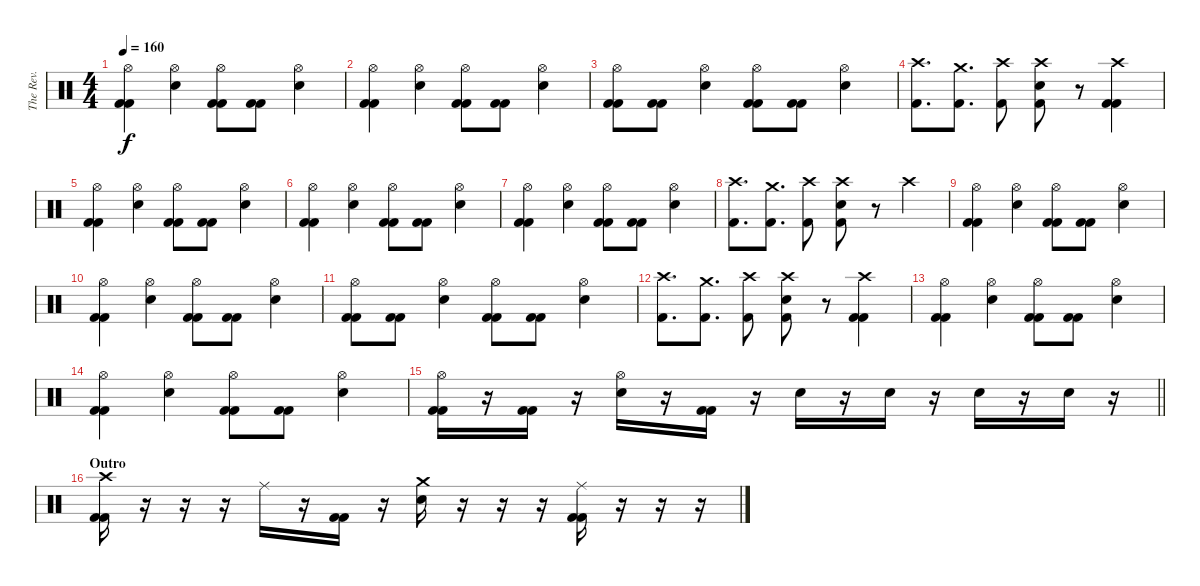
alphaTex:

\track ("The Rev." "The Rev.") {instrument percussion}
\staff {score}
\articulation defaults
\ts (4 4)
\tempo 160
\clef neutral
\ks c
("Hi-Hat (open)" "Kick (hit) 2" "Kick (hit) 2").4{dy f} ("Hi-Hat (open)" "Electric Snare (hit)").4 ("Hi-Hat (open)" "Kick (hit) 2" "Kick (hit) 2").8 ("Kick (hit) 2" "Kick (hit) 2").8 ("Hi-Hat (open)" "Electric Snare (hit)").4 |
("Hi-Hat (open)" "Kick (hit) 2" "Kick (hit) 2").4 ("Hi-Hat (open)" "Electric Snare (hit)").4 ("Hi-Hat (open)" "Kick (hit) 2" "Kick (hit) 2").8 ("Kick (hit) 2" "Kick (hit) 2").8 ("Hi-Hat (open)" "Electric Snare (hit)").4 |
("Hi-Hat (open)" "Kick (hit) 2" "Kick (hit) 2").8 ("Kick (hit) 2" "Kick (hit) 2").8 ("Hi-Hat (open)" "Electric Snare (hit)").4 ("Hi-Hat (open)" "Kick (hit) 2" "Kick (hit) 2").8 ("Kick (hit) 2" "Kick (hit) 2").8 ("Hi-Hat (open)" "Electric Snare (hit)").4 |
("Crash high (hit)" "Kick (hit) 2").8{d} ("Crash medium (hit)" "Kick (hit) 2").8{d} ("Crash high (hit)" "Kick (hit) 2").8 ("Crash high (hit)" "Electric Snare (hit)" "Kick (hit) 2").8 r.8 ("Crash high (hit)" "Kick (hit) 2" "Kick (hit) 2").4 |
("Hi-Hat (open)" "Kick (hit) 2" "Kick (hit) 2").4 ("Hi-Hat (open)" "Electric Snare (hit)").4 ("Hi-Hat (open)" "Kick (hit) 2" "Kick (hit) 2").8 ("Kick (hit) 2" "Kick (hit) 2").8 ("Hi-Hat (open)" "Electric Snare (hit)").4 |
("Hi-Hat (open)" "Kick (hit) 2" "Kick (hit) 2").4 ("Hi-Hat (open)" "Electric Snare (hit)").4 ("Hi-Hat (open)" "Kick (hit) 2" "Kick (hit) 2").8 ("Kick (hit) 2" "Kick (hit) 2").8 ("Hi-Hat (open)" "Electric Snare (hit)").4 |
("Hi-Hat (open)" "Kick (hit) 2" "Kick (hit) 2").4 ("Hi-Hat (open)" "Electric Snare (hit)").4 ("Hi-Hat (open)" "Kick (hit) 2" "Kick (hit) 2").8 ("Kick (hit) 2" "Kick (hit) 2").8 ("Hi-Hat (open)" "Electric Snare (hit)").4 |
("Crash high (hit)" "Kick (hit) 2").8{d} ("Crash medium (hit)" "Kick (hit) 2").8{d} ("Crash high (hit)" "Kick (hit) 2").8 ("Crash high (hit)" "Electric Snare (hit)" "Kick (hit) 2").8 r.8 "Crash high (hit)".4 |
("Hi-Hat (open)" "Kick (hit) 2" "Kick (hit) 2").4 ("Hi-Hat (open)" "Electric Snare (hit)").4 ("Hi-Hat (open)" "Kick (hit) 2" "Kick (hit) 2").8 ("Kick (hit) 2" "Kick (hit) 2").8 ("Hi-Hat (open)" "Electric Snare (hit)").4 |
("Hi-Hat (open)" "Kick (hit) 2" "Kick (hit) 2").4 ("Hi-Hat (open)" "Electric Snare (hit)").4 ("Hi-Hat (open)" "Kick (hit) 2" "Kick (hit) 2").8 ("Kick (hit) 2" "Kick (hit) 2").8 ("Hi-Hat (open)" "Electric Snare (hit)").4 |
("Hi-Hat (open)" "Kick (hit) 2" "Kick (hit) 2").8 ("Kick (hit) 2" "Kick (hit) 2").8 ("Hi-Hat (open)" "Electric Snare (hit)").4 ("Hi-Hat (open)" "Kick (hit) 2" "Kick (hit) 2").8 ("Kick (hit) 2" "Kick (hit) 2").8 ("Hi-Hat (open)" "Electric Snare (hit)").4 |
("Crash high (hit)" "Kick (hit) 2").8{d} ("Crash medium (hit)" "Kick (hit) 2").8{d} ("Crash high (hit)" "Kick (hit) 2").8 ("Crash high (hit)" "Electric Snare (hit)" "Kick (hit) 2").8 r.8 ("Crash high (hit)" "Kick (hit) 2" "Kick (hit) 2").4 |
("Hi-Hat (open)" "Kick (hit) 2" "Kick (hit) 2").4 ("Hi-Hat (open)" "Electric Snare (hit)").4 ("Hi-Hat (open)" "Kick (hit) 2" "Kick (hit) 2").8 ("Kick (hit) 2" "Kick (hit) 2").8 ("Hi-Hat (open)" "Electric Snare (hit)").4 |
("Hi-Hat (open)" "Kick (hit) 2" "Kick (hit) 2").4 ("Hi-Hat (open)" "Electric Snare (hit)").4 ("Hi-Hat (open)" "Kick (hit) 2" "Kick (hit) 2").8 ("Kick (hit) 2" "Kick (hit) 2").8 ("Hi-Hat (open)" "Electric Snare (hit)").4 |
\barLineRight lightlight
("Hi-Hat (open)" "Kick (hit) 2" "Kick (hit) 2").16 r.16 ("Kick (hit) 2" "Kick (hit) 2").16 r.16 ("Hi-Hat (open)" "Electric Snare (hit)").16 r.16 ("Kick (hit) 2" "Kick (hit) 2").16 r.16 "Electric Snare (hit)".16 r.16 "Electric Snare (hit)".16 r.16 "Electric Snare (hit)".16 r.16 "Electric Snare (hit)".16 r.16 |
\section ("" "Outro")
("Crash high (hit)" "Kick (hit) 2" "Kick (hit) 2").16 r.16 r.16 r.16 "Ride (middle)".16 r.16 ("Kick (hit) 2" "Kick (hit) 2").16 r.16 ("Crash medium (hit)" "Electric Snare (hit)").16 r.16 r.16 r.16 ("Ride (middle)" "Kick (hit) 2" "Kick (hit) 2").16 r.16 r.16 r.16
